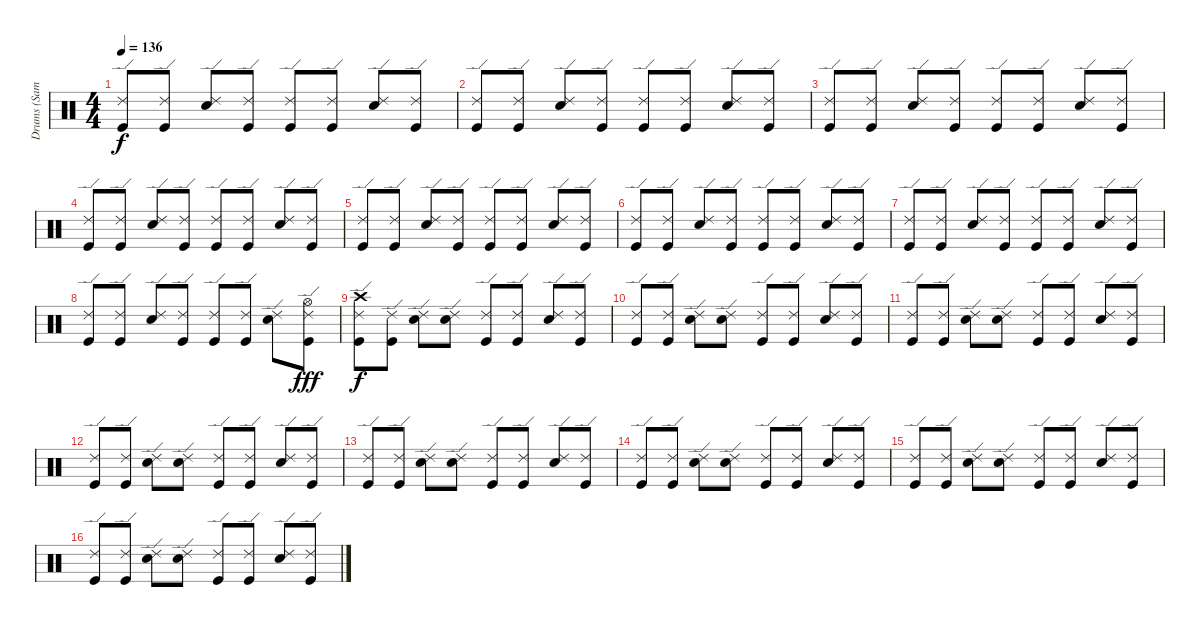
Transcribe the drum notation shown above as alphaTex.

\track ("Drums (Sam)" "Drums (Sam") {instrument percussion}
\staff {score}
\articulation defaults
\ts (4 4)
\tempo 136
\clef neutral
\ks c
("Ride (edge) 2" "Kick (hit)").8{dy f} ("Ride (edge) 2" "Kick (hit)").8 ("Ride (edge) 2" "Snare (hit) 2").8 ("Ride (edge) 2" "Kick (hit)").8 ("Ride (edge) 2" "Kick (hit)").8 ("Ride (edge) 2" "Kick (hit)").8 ("Ride (edge) 2" "Snare (hit) 2").8 ("Ride (edge) 2" "Kick (hit)").8 |
("Ride (edge) 2" "Kick (hit)").8 ("Ride (edge) 2" "Kick (hit)").8 ("Ride (edge) 2" "Snare (hit) 2").8 ("Ride (edge) 2" "Kick (hit)").8 ("Ride (edge) 2" "Kick (hit)").8 ("Ride (edge) 2" "Kick (hit)").8 ("Ride (edge) 2" "Snare (hit) 2").8 ("Ride (edge) 2" "Kick (hit)").8 |
("Ride (edge) 2" "Kick (hit)").8 ("Ride (edge) 2" "Kick (hit)").8 ("Ride (edge) 2" "Snare (hit) 2").8 ("Ride (edge) 2" "Kick (hit)").8 ("Ride (edge) 2" "Kick (hit)").8 ("Ride (edge) 2" "Kick (hit)").8 ("Ride (edge) 2" "Snare (hit) 2").8 ("Ride (edge) 2" "Kick (hit)").8 |
("Ride (edge) 2" "Kick (hit)").8 ("Ride (edge) 2" "Kick (hit)").8 ("Ride (edge) 2" "Snare (hit) 2").8 ("Ride (edge) 2" "Kick (hit)").8 ("Ride (edge) 2" "Kick (hit)").8 ("Ride (edge) 2" "Kick (hit)").8 ("Ride (edge) 2" "Snare (hit) 2").8 ("Ride (edge) 2" "Kick (hit)").8 |
("Ride (edge) 2" "Kick (hit)").8 ("Ride (edge) 2" "Kick (hit)").8 ("Ride (edge) 2" "Snare (hit) 2").8 ("Ride (edge) 2" "Kick (hit)").8 ("Ride (edge) 2" "Kick (hit)").8 ("Ride (edge) 2" "Kick (hit)").8 ("Ride (edge) 2" "Snare (hit) 2").8 ("Ride (edge) 2" "Kick (hit)").8 |
("Ride (edge) 2" "Kick (hit)").8 ("Ride (edge) 2" "Kick (hit)").8 ("Ride (edge) 2" "Snare (hit) 2").8 ("Ride (edge) 2" "Kick (hit)").8 ("Ride (edge) 2" "Kick (hit)").8 ("Ride (edge) 2" "Kick (hit)").8 ("Ride (edge) 2" "Snare (hit) 2").8 ("Ride (edge) 2" "Kick (hit)").8 |
("Ride (edge) 2" "Kick (hit)").8 ("Ride (edge) 2" "Kick (hit)").8 ("Ride (edge) 2" "Snare (hit) 2").8 ("Ride (edge) 2" "Kick (hit)").8 ("Ride (edge) 2" "Kick (hit)").8 ("Ride (edge) 2" "Kick (hit)").8 ("Ride (edge) 2" "Snare (hit) 2").8 ("Ride (edge) 2" "Kick (hit)").8 |
("Ride (edge) 2" "Kick (hit)").8 ("Ride (edge) 2" "Kick (hit)").8 ("Ride (edge) 2" "Snare (hit) 2").8 ("Ride (edge) 2" "Kick (hit)").8 ("Ride (edge) 2" "Kick (hit)").8 ("Ride (edge) 2" "Kick (hit)").8 ("Ride (edge) 2" "Snare (hit) 2").8 ("Hi-Hat (open)" "Ride (edge) 2" "Kick (hit)").8{dy fff} |
("Crash high (hit)" "Ride (edge) 2" "Kick (hit)").8{dy f} ("Ride (edge) 2" "Kick (hit)").8 ("Ride (edge) 2" "Snare (hit) 2").8 ("Ride (edge) 2" "Snare (hit) 2").8 ("Ride (edge) 2" "Kick (hit)").8 ("Ride (edge) 2" "Kick (hit)").8 ("Ride (edge) 2" "Snare (hit) 2").8 ("Ride (edge) 2" "Kick (hit)").8 |
("Ride (edge) 2" "Kick (hit)").8 ("Ride (edge) 2" "Kick (hit)").8 ("Ride (edge) 2" "Snare (hit) 2").8 ("Ride (edge) 2" "Snare (hit) 2").8 ("Ride (edge) 2" "Kick (hit)").8 ("Ride (edge) 2" "Kick (hit)").8 ("Ride (edge) 2" "Snare (hit) 2").8 ("Ride (edge) 2" "Kick (hit)").8 |
("Ride (edge) 2" "Kick (hit)").8 ("Ride (edge) 2" "Kick (hit)").8 ("Ride (edge) 2" "Snare (hit) 2").8 ("Ride (edge) 2" "Snare (hit) 2").8 ("Ride (edge) 2" "Kick (hit)").8 ("Ride (edge) 2" "Kick (hit)").8 ("Ride (edge) 2" "Snare (hit) 2").8 ("Ride (edge) 2" "Kick (hit)").8 |
("Ride (edge) 2" "Kick (hit)").8 ("Ride (edge) 2" "Kick (hit)").8 ("Ride (edge) 2" "Snare (hit) 2").8 ("Ride (edge) 2" "Snare (hit) 2").8 ("Ride (edge) 2" "Kick (hit)").8 ("Ride (edge) 2" "Kick (hit)").8 ("Ride (edge) 2" "Snare (hit) 2").8 ("Ride (edge) 2" "Kick (hit)").8 |
("Ride (edge) 2" "Kick (hit)").8 ("Ride (edge) 2" "Kick (hit)").8 ("Ride (edge) 2" "Snare (hit) 2").8 ("Ride (edge) 2" "Snare (hit) 2").8 ("Ride (edge) 2" "Kick (hit)").8 ("Ride (edge) 2" "Kick (hit)").8 ("Ride (edge) 2" "Snare (hit) 2").8 ("Ride (edge) 2" "Kick (hit)").8 |
("Ride (edge) 2" "Kick (hit)").8 ("Ride (edge) 2" "Kick (hit)").8 ("Ride (edge) 2" "Snare (hit) 2").8 ("Ride (edge) 2" "Snare (hit) 2").8 ("Ride (edge) 2" "Kick (hit)").8 ("Ride (edge) 2" "Kick (hit)").8 ("Ride (edge) 2" "Snare (hit) 2").8 ("Ride (edge) 2" "Kick (hit)").8 |
("Ride (edge) 2" "Kick (hit)").8 ("Ride (edge) 2" "Kick (hit)").8 ("Ride (edge) 2" "Snare (hit) 2").8 ("Ride (edge) 2" "Snare (hit) 2").8 ("Ride (edge) 2" "Kick (hit)").8 ("Ride (edge) 2" "Kick (hit)").8 ("Ride (edge) 2" "Snare (hit) 2").8 ("Ride (edge) 2" "Kick (hit)").8 |
("Ride (edge) 2" "Kick (hit)").8 ("Ride (edge) 2" "Kick (hit)").8 ("Ride (edge) 2" "Snare (hit) 2").8 ("Ride (edge) 2" "Snare (hit) 2").8 ("Ride (edge) 2" "Kick (hit)").8 ("Ride (edge) 2" "Kick (hit)").8 ("Ride (edge) 2" "Snare (hit) 2").8 ("Ride (edge) 2" "Kick (hit)").8
